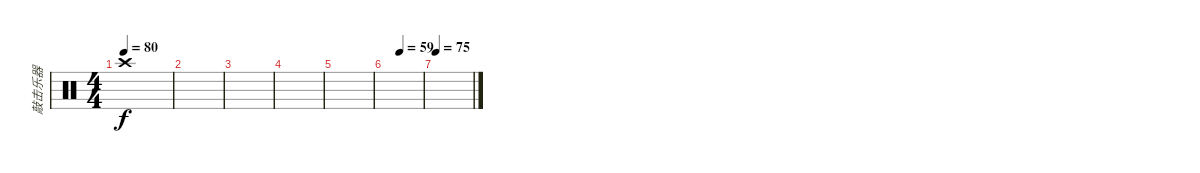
\track ("敲击乐器" "敲击乐器") {instrument percussion}
\staff {score}
\articulation defaults
\ts (4 4)
\tempo 80
\clef neutral
\ks c "Crash high (hit)".1{dy f}
|
|
|
|
|
\tempo (59 0.375)
|
\tempo 75
